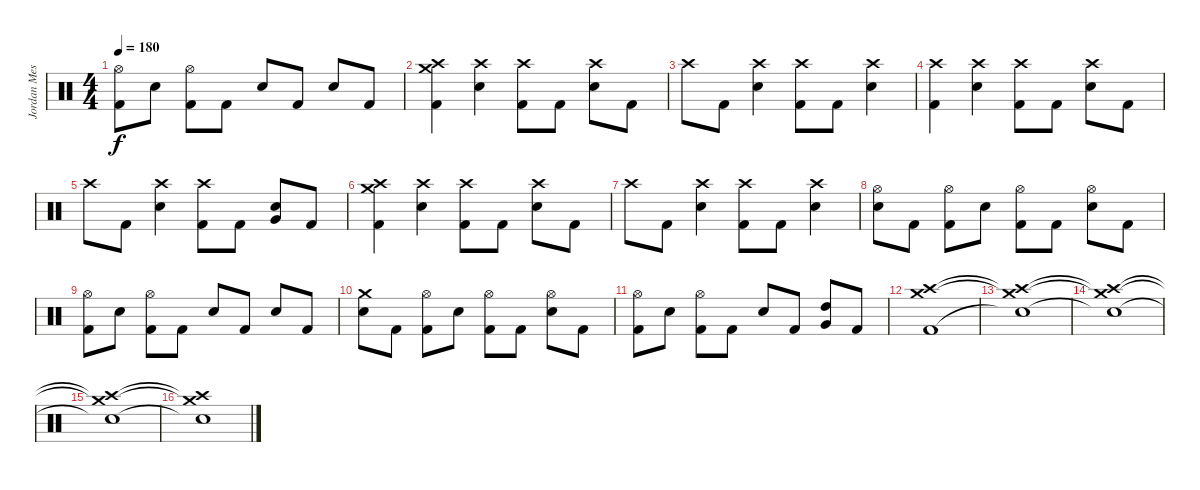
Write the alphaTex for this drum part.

\track ("Jordan Messer " "Jordan Mes") {instrument percussion}
\staff {score}
\articulation defaults
\ts (4 4)
\tempo 180
\clef neutral
\ks c
("Hi-Hat (open)" "Kick (hit) 2").8{dy f} "Snare (hit) 2".8 ("Hi-Hat (open)" "Kick (hit) 2").8 "Kick (hit) 2".8 "Snare (hit) 2".8 "Kick (hit) 2".8 "Snare (hit) 2".8 "Kick (hit) 2".8 |
("Crash medium (hit)" "Crash high (hit)" "Kick (hit) 2").4 ("Crash high (hit)" "Snare (hit) 2").4 ("Crash high (hit)" "Kick (hit) 2").8 "Kick (hit) 2".8 ("Crash high (hit)" "Snare (hit) 2").8 "Kick (hit) 2".8 |
"Crash high (hit)".8 "Kick (hit) 2".8 ("Crash high (hit)" "Snare (hit) 2").4 ("Crash high (hit)" "Kick (hit) 2").8 "Kick (hit) 2".8 ("Crash high (hit)" "Snare (hit) 2").4 |
("Crash high (hit)" "Kick (hit) 2").4 ("Crash high (hit)" "Snare (hit) 2").4 ("Crash high (hit)" "Kick (hit) 2").8 "Kick (hit) 2".8 ("Crash high (hit)" "Snare (hit) 2").8 "Kick (hit) 2".8 |
"Crash high (hit)".8 "Kick (hit) 2".8 ("Crash high (hit)" "Snare (hit) 2").4 ("Crash high (hit)" "Kick (hit) 2").8 "Kick (hit) 2".8 ("Snare (hit) 2" "Very Low Tom (hit)").8 "Kick (hit) 2".8 |
("Crash medium (hit)" "Crash high (hit)" "Kick (hit) 2").4 ("Crash high (hit)" "Snare (hit) 2").4 ("Crash high (hit)" "Kick (hit) 2").8 "Kick (hit) 2".8 ("Crash high (hit)" "Snare (hit) 2").8 "Kick (hit) 2".8 |
"Crash high (hit)".8 "Kick (hit) 2".8 ("Crash high (hit)" "Snare (hit) 2").4 ("Crash high (hit)" "Kick (hit) 2").8 "Kick (hit) 2".8 ("Crash high (hit)" "Snare (hit) 2").4 |
("Hi-Hat (open)" "Snare (hit) 2").8 "Kick (hit) 2".8 ("Hi-Hat (open)" "Kick (hit) 2").8 "Snare (hit) 2".8 ("Hi-Hat (open)" "Kick (hit) 2").8 "Kick (hit) 2".8 ("Hi-Hat (open)" "Snare (hit) 2").8 "Kick (hit) 2".8 |
("Hi-Hat (open)" "Kick (hit) 2").8 "Snare (hit) 2".8 ("Hi-Hat (open)" "Kick (hit) 2").8 "Kick (hit) 2".8 "Snare (hit) 2".8 "Kick (hit) 2".8 "Snare (hit) 2".8 "Kick (hit) 2".8 |
("Crash medium (hit)" "Snare (hit) 2").8 "Kick (hit) 2".8 ("Hi-Hat (open)" "Kick (hit) 2").8 "Snare (hit) 2".8 ("Hi-Hat (open)" "Kick (hit) 2").8 "Kick (hit) 2".8 ("Hi-Hat (open)" "Snare (hit) 2").8 "Kick (hit) 2".8 |
("Hi-Hat (open)" "Kick (hit) 2").8 "Snare (hit) 2".8 ("Hi-Hat (open)" "Kick (hit) 2").8 "Kick (hit) 2".8 "Snare (hit) 2".8 "Kick (hit) 2".8 ("High Tom (hit)" "Very Low Tom (hit)").8 "Kick (hit) 2".8 |
("Crash medium (hit)" "Crash high (hit)" "Kick (hit) 2").1 |
("Crash medium (hit)"{t} "Crash high (hit)"{t} "Snare (hit)"{t}).1 |
("Crash medium (hit)"{t} "Crash high (hit)"{t} "Snare (hit)"{t}).1 |
("Crash medium (hit)"{t} "Crash high (hit)"{t} "Snare (hit)"{t}).1 |
("Crash medium (hit)"{t} "Crash high (hit)"{t} "Snare (hit)"{t}).1
